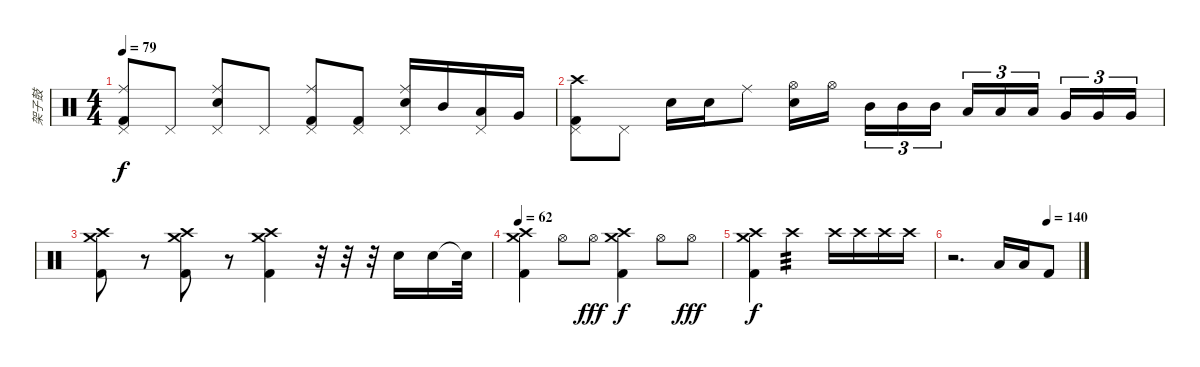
\track ("架子鼓" "架子鼓") {instrument percussion}
\staff {score}
\articulation defaults
\ts (4 4)
\tempo 79
\clef neutral
\ks c
("Ride (middle)" "Pedal Hi-Hat (hit)" "Kick (hit) 2").8{dy f} "Pedal Hi-Hat (hit)".8 ("Ride (middle)" "Pedal Hi-Hat (hit)" "Electric Snare (hit)").8 "Pedal Hi-Hat (hit)".8 ("Ride (middle)" "Pedal Hi-Hat (hit)" "Kick (hit) 2").8 ("Pedal Hi-Hat (hit)" "Kick (hit) 2").8 ("Ride (middle)" "Pedal Hi-Hat (hit)" "Electric Snare (hit)").16 "Mid Tom (hit)".16 ("Pedal Hi-Hat (hit)" "Low Tom (hit)").16 "Very Low Tom (hit)".16 |
("Crash high (hit)" "Pedal Hi-Hat (hit)" "Kick (hit) 2").8 "Pedal Hi-Hat (hit)".8 "Electric Snare (hit)".16 "Electric Snare (hit)".16 "Ride (middle)".8 ("Electric Snare (hit)" "Hi-Hat (open)").16 "Hi-Hat (open)".16 "Mid Tom (hit)".16{tu (3 2)} "Mid Tom (hit)".16{tu (3 2)} "Mid Tom (hit)".16{tu (3 2)} "Low Tom (hit)".16{tu (3 2)} "Low Tom (hit)".16{tu (3 2)} "Low Tom (hit)".16{tu (3 2)} "Very Low Tom (hit)".16{tu (3 2)} "Very Low Tom (hit)".16{tu (3 2)} "Very Low Tom (hit)".16{tu (3 2)} |
("Crash high (hit)" "Crash medium (hit)" "Kick (hit) 2").8 r.8 ("Crash high (hit)" "Crash medium (hit)" "Kick (hit) 2").8 r.8 ("Crash high (hit)" "Crash medium (hit)" "Kick (hit) 2").4 r.32 r.32 r.32 "Electric Snare (hit)".16 "Electric Snare (hit)".16 "Snare (hit)"{t}.32 |
\tempo 62
("Crash high (hit)" "Crash medium (hit)" "Kick (hit) 2").4 "Hi-Hat (open)".8 "Hi-Hat (open)".8{dy fff} ("Crash high (hit)" "Crash medium (hit)" "Kick (hit) 2").4{dy f} "Hi-Hat (open)".8 "Hi-Hat (open)".8{dy fff} |
("Crash high (hit)" "Crash medium (hit)" "Kick (hit) 2").4{dy f} "Crash high (hit)".2{tp 3} "Crash high (hit)".16 "Crash high (hit)".16 "Crash high (hit)".16 "Crash high (hit)".16 |
\tempo (140 0.75)
r.2{d} "Low Floor Tom (hit)".16 "Low Floor Tom (hit)".16 "Kick (hit) 2".8
